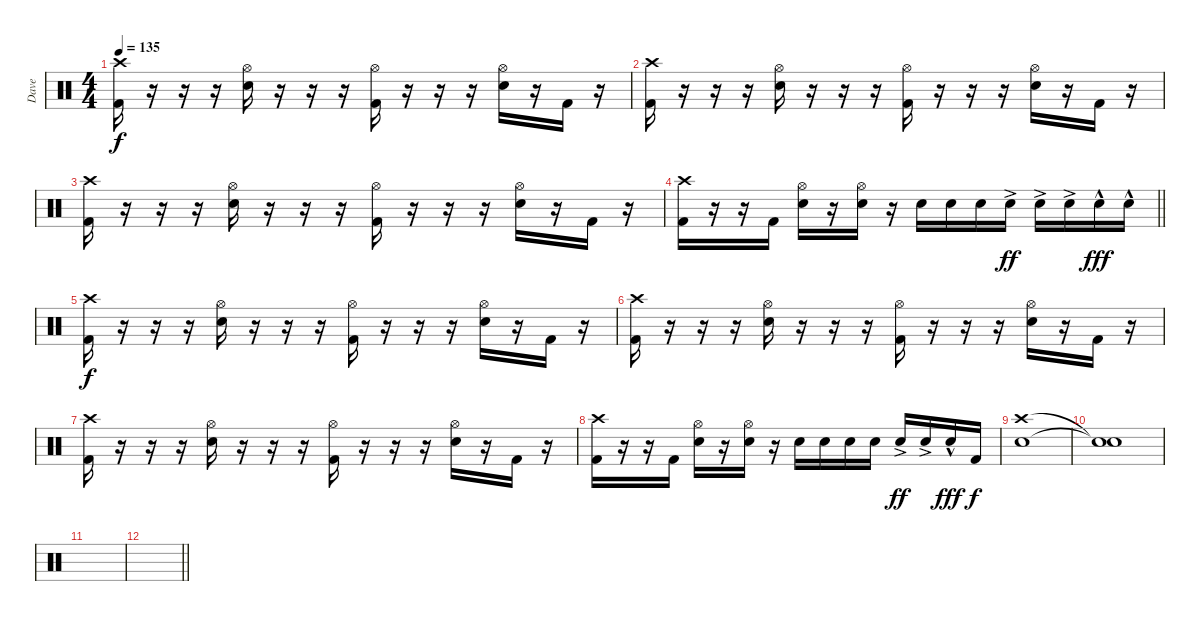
\track ("Dave" "Dave") {instrument percussion}
\staff {score}
\articulation defaults
\ts (4 4)
\tempo 135
\clef neutral
\ks c
("Crash high (hit)" "Kick (hit) 2").16{dy f} r.16 r.16 r.16 ("Hi-Hat (open)" "Electric Snare (hit)").16 r.16 r.16 r.16 ("Hi-Hat (open)" "Kick (hit) 2").16 r.16 r.16 r.16 ("Hi-Hat (open)" "Electric Snare (hit)").16 r.16 "Kick (hit) 2".16 r.16 |
("Crash high (hit)" "Kick (hit) 2").16 r.16 r.16 r.16 ("Hi-Hat (open)" "Electric Snare (hit)").16 r.16 r.16 r.16 ("Hi-Hat (open)" "Kick (hit) 2").16 r.16 r.16 r.16 ("Hi-Hat (open)" "Electric Snare (hit)").16 r.16 "Kick (hit) 2".16 r.16 |
("Crash high (hit)" "Kick (hit) 2").16 r.16 r.16 r.16 ("Hi-Hat (open)" "Electric Snare (hit)").16 r.16 r.16 r.16 ("Hi-Hat (open)" "Kick (hit) 2").16 r.16 r.16 r.16 ("Hi-Hat (open)" "Electric Snare (hit)").16 r.16 "Kick (hit) 2".16 r.16 |
\barLineRight lightlight
("Crash high (hit)" "Kick (hit) 2").16 r.16 r.16 "Kick (hit) 2".16 ("Hi-Hat (open)" "Electric Snare (hit)").16 r.16 ("Hi-Hat (open)" "Electric Snare (hit)").16 r.16 "Electric Snare (hit)".16 "Electric Snare (hit)".16 "Electric Snare (hit)".16 "Electric Snare (hit)"{ac}.16{dy ff} "Electric Snare (hit)"{ac}.16 "Electric Snare (hit)"{ac}.16 "Electric Snare (hit)"{hac}.16{dy fff} "Electric Snare (hit)"{hac}.16 |
("Crash high (hit)" "Kick (hit) 2").16{dy f} r.16 r.16 r.16 ("Hi-Hat (open)" "Electric Snare (hit)").16 r.16 r.16 r.16 ("Hi-Hat (open)" "Kick (hit) 2").16 r.16 r.16 r.16 ("Hi-Hat (open)" "Electric Snare (hit)").16 r.16 "Kick (hit) 2".16 r.16 |
("Crash high (hit)" "Kick (hit) 2").16 r.16 r.16 r.16 ("Hi-Hat (open)" "Electric Snare (hit)").16 r.16 r.16 r.16 ("Hi-Hat (open)" "Kick (hit) 2").16 r.16 r.16 r.16 ("Hi-Hat (open)" "Electric Snare (hit)").16 r.16 "Kick (hit) 2".16 r.16 |
("Crash high (hit)" "Kick (hit) 2").16 r.16 r.16 r.16 ("Hi-Hat (open)" "Electric Snare (hit)").16 r.16 r.16 r.16 ("Hi-Hat (open)" "Kick (hit) 2").16 r.16 r.16 r.16 ("Hi-Hat (open)" "Electric Snare (hit)").16 r.16 "Kick (hit) 2".16 r.16 |
("Crash high (hit)" "Kick (hit) 2").16 r.16 r.16 "Kick (hit) 2".16 ("Hi-Hat (open)" "Electric Snare (hit)").16 r.16 ("Hi-Hat (open)" "Electric Snare (hit)").16 r.16 "Electric Snare (hit)".16 "Electric Snare (hit)".16 "Electric Snare (hit)".16 "Electric Snare (hit)".16 "Electric Snare (hit)"{ac}.16{dy ff} "Electric Snare (hit)"{ac}.16 "Electric Snare (hit)"{hac}.16{dy fff} "Kick (hit) 2".16{dy f} |
("Crash high (hit)" "Electric Snare (hit)").1 |
("Snare (hit)"{t} "Snare (hit)"{t}).1 |
|
\barLineRight lightlight
